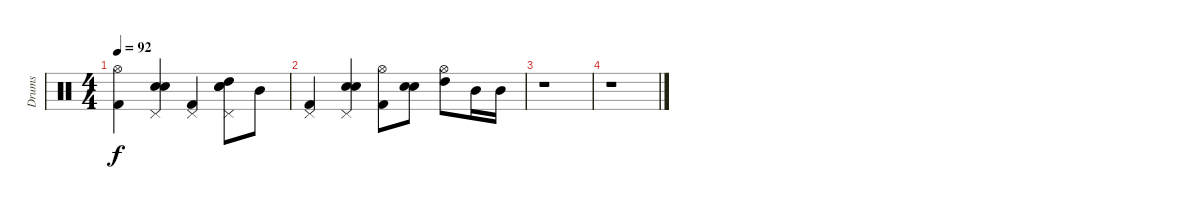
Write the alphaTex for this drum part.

\track ("Drums" "Drums") {instrument percussion}
\staff {score}
\articulation defaults
\ts (4 4)
\tempo 92
\clef neutral
\ks c
("Hi-Hat (open)" "Kick (hit) 2").4{dy f} ("Snare (hit) 2" "Electric Snare (hit)" "Pedal Hi-Hat (hit)").4 ("Kick (hit) 2" "Pedal Hi-Hat (hit)").4 ("Snare (hit) 2" "Electric Snare (hit)" "High Tom (hit)" "Pedal Hi-Hat (hit)").8 "Mid Tom (hit)".8 |
("Kick (hit) 2" "Pedal Hi-Hat (hit)").4 ("Snare (hit) 2" "Electric Snare (hit)" "Pedal Hi-Hat (hit)").4 ("Hi-Hat (open)" "Kick (hit) 2").8 ("Snare (hit) 2" "Electric Snare (hit)").8 ("Hi-Hat (open)" "High Tom (hit)").8 "Mid Tom (hit)".16 "Mid Tom (hit)".16 |
r.1 |
r.1
